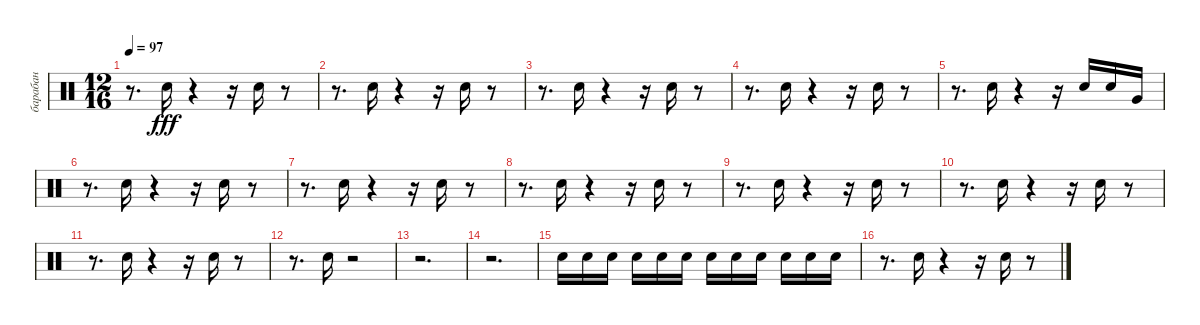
\track ("барабан" "барабан") {instrument percussion}
\staff {score}
\articulation defaults
\ts (12 16)
\tempo 97
\clef neutral
\ks c
r.8{d dy fff} "Snare (hit) 2".16 r.4 r.16 "Snare (hit) 2".16 r.8 |
r.8{d} "Snare (hit) 2".16 r.4 r.16 "Snare (hit) 2".16 r.8 |
r.8{d} "Snare (hit) 2".16 r.4 r.16 "Snare (hit) 2".16 r.8 |
r.8{d} "Snare (hit) 2".16 r.4 r.16 "Snare (hit) 2".16 r.8 |
r.8{d} "Snare (hit) 2".16 r.4 r.16 "Snare (hit) 2".16 "Snare (hit) 2".16 "Very Low Tom (hit)".16 |
r.8{d} "Snare (hit) 2".16 r.4 r.16 "Snare (hit) 2".16 r.8 |
r.8{d} "Snare (hit) 2".16 r.4 r.16 "Snare (hit) 2".16 r.8 |
r.8{d} "Snare (hit) 2".16 r.4 r.16 "Snare (hit) 2".16 r.8 |
r.8{d} "Snare (hit) 2".16 r.4 r.16 "Snare (hit) 2".16 r.8 |
r.8{d} "Snare (hit) 2".16 r.4 r.16 "Snare (hit) 2".16 r.8 |
r.8{d} "Snare (hit) 2".16 r.4 r.16 "Snare (hit) 2".16 r.8 |
r.8{d} "Snare (hit) 2".16 r.2 |
r.2{d} |
r.2{d} |
"Snare (hit) 2".16 "Snare (hit) 2".16 "Snare (hit) 2".16 "Snare (hit) 2".16 "Snare (hit) 2".16 "Snare (hit) 2".16 "Snare (hit) 2".16 "Snare (hit) 2".16 "Snare (hit) 2".16 "Snare (hit) 2".16 "Snare (hit) 2".16 "Snare (hit) 2".16 |
r.8{d} "Snare (hit) 2".16 r.4 r.16 "Snare (hit) 2".16 r.8
